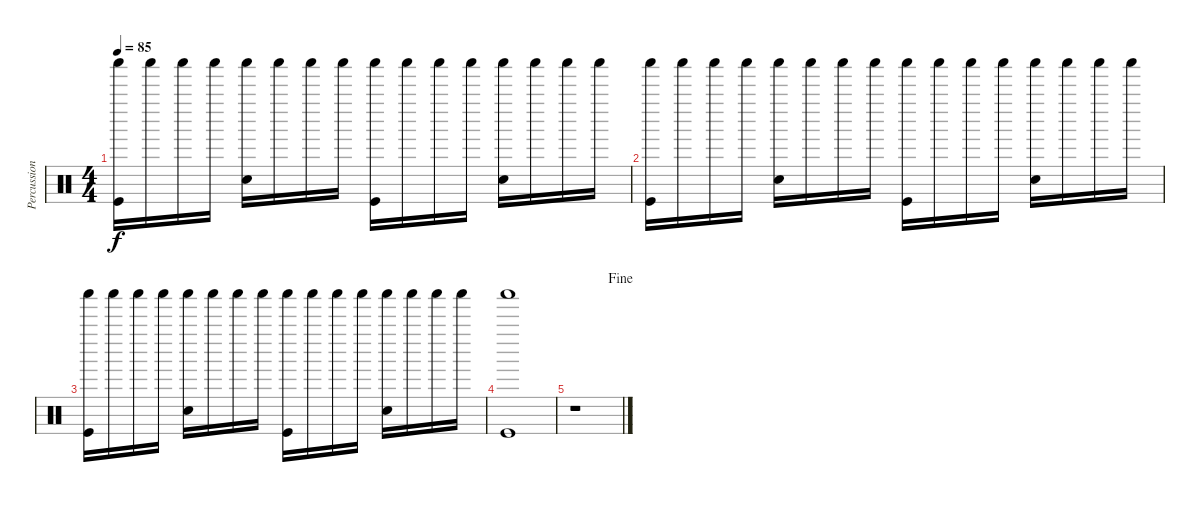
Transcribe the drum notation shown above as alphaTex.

\track ("Percussion" "Percussion") {instrument percussion}
\staff {score}
\articulation defaults
\ts (4 4)
\tempo 85
\clef neutral
\ks c
("Shaker (hit)" "Kick (hit)").16{dy f} "Shaker (hit)".16 "Shaker (hit)".16 "Shaker (hit)".16 ("Shaker (hit)" "Snare (hit) 2").16 "Shaker (hit)".16 "Shaker (hit)".16 "Shaker (hit)".16 ("Shaker (hit)" "Kick (hit)").16 "Shaker (hit)".16 "Shaker (hit)".16 "Shaker (hit)".16 ("Shaker (hit)" "Snare (hit) 2").16 "Shaker (hit)".16 "Shaker (hit)".16 "Shaker (hit)".16 |
("Shaker (hit)" "Kick (hit)").16 "Shaker (hit)".16 "Shaker (hit)".16 "Shaker (hit)".16 ("Shaker (hit)" "Snare (hit) 2").16 "Shaker (hit)".16 "Shaker (hit)".16 "Shaker (hit)".16 ("Shaker (hit)" "Kick (hit)").16 "Shaker (hit)".16 "Shaker (hit)".16 "Shaker (hit)".16 ("Shaker (hit)" "Snare (hit) 2").16 "Shaker (hit)".16 "Shaker (hit)".16 "Shaker (hit)".16 |
("Shaker (hit)" "Kick (hit)").16 "Shaker (hit)".16 "Shaker (hit)".16 "Shaker (hit)".16 ("Shaker (hit)" "Snare (hit) 2").16 "Shaker (hit)".16 "Shaker (hit)".16 "Shaker (hit)".16 ("Shaker (hit)" "Kick (hit)").16 "Shaker (hit)".16 "Shaker (hit)".16 "Shaker (hit)".16 ("Shaker (hit)" "Snare (hit) 2").16 "Shaker (hit)".16 "Shaker (hit)".16 "Shaker (hit)".16 |
("Shaker (hit)" "Kick (hit)").1 |
\jump fine
r.1
